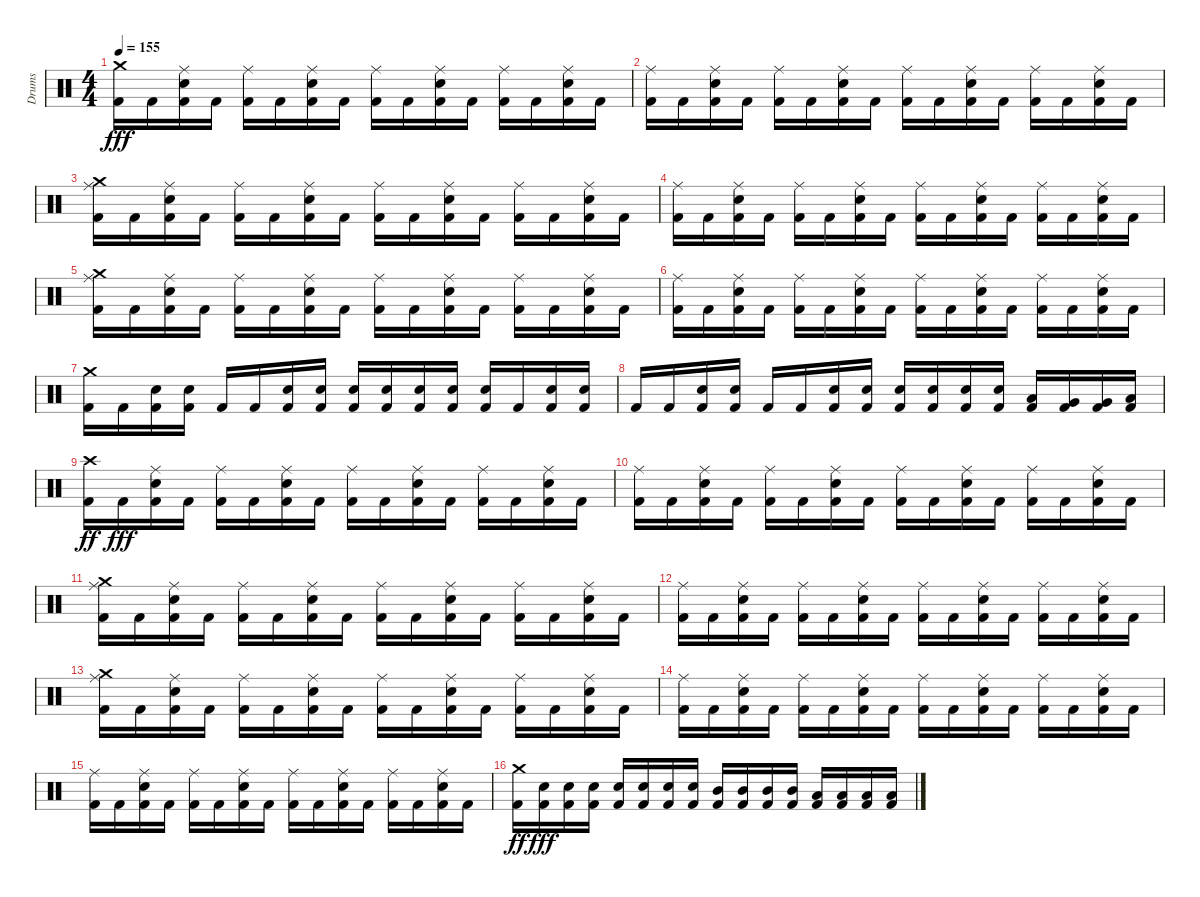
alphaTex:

\track ("Drums" "Drums") {instrument percussion}
\staff {score}
\articulation defaults
\ts (4 4)
\tempo 155
\clef neutral
\ks c
("Kick (hit) 2" "Crash medium (hit)").16{dy fff} "Kick (hit) 2".16 ("Kick (hit) 2" "Ride (middle)" "Snare (hit) 2").16 "Kick (hit) 2".16 ("Kick (hit) 2" "Ride (middle)").16 "Kick (hit) 2".16 ("Kick (hit) 2" "Ride (middle)" "Snare (hit) 2").16 "Kick (hit) 2".16 ("Kick (hit) 2" "Ride (middle)").16 "Kick (hit) 2".16 ("Kick (hit) 2" "Ride (middle)" "Snare (hit) 2").16 "Kick (hit) 2".16 ("Kick (hit) 2" "Ride (middle)").16 "Kick (hit) 2".16 ("Kick (hit) 2" "Ride (middle)" "Snare (hit) 2").16 "Kick (hit) 2".16 |
("Kick (hit) 2" "Ride (middle)").16 "Kick (hit) 2".16 ("Kick (hit) 2" "Ride (middle)" "Snare (hit) 2").16 "Kick (hit) 2".16 ("Kick (hit) 2" "Ride (middle)").16 "Kick (hit) 2".16 ("Kick (hit) 2" "Ride (middle)" "Snare (hit) 2").16 "Kick (hit) 2".16 ("Kick (hit) 2" "Ride (middle)").16 "Kick (hit) 2".16 ("Kick (hit) 2" "Ride (middle)" "Snare (hit) 2").16 "Kick (hit) 2".16 ("Kick (hit) 2" "Ride (middle)").16 "Kick (hit) 2".16 ("Kick (hit) 2" "Ride (middle)" "Snare (hit) 2").16 "Kick (hit) 2".16 |
("Kick (hit) 2" "Ride (middle)" "Crash medium (hit)").16 "Kick (hit) 2".16 ("Kick (hit) 2" "Ride (middle)" "Snare (hit) 2").16 "Kick (hit) 2".16 ("Kick (hit) 2" "Ride (middle)").16 "Kick (hit) 2".16 ("Kick (hit) 2" "Ride (middle)" "Snare (hit) 2").16 "Kick (hit) 2".16 ("Kick (hit) 2" "Ride (middle)").16 "Kick (hit) 2".16 ("Kick (hit) 2" "Ride (middle)" "Snare (hit) 2").16 "Kick (hit) 2".16 ("Kick (hit) 2" "Ride (middle)").16 "Kick (hit) 2".16 ("Kick (hit) 2" "Ride (middle)" "Snare (hit) 2").16 "Kick (hit) 2".16 |
("Kick (hit) 2" "Ride (middle)").16 "Kick (hit) 2".16 ("Kick (hit) 2" "Ride (middle)" "Snare (hit) 2").16 "Kick (hit) 2".16 ("Kick (hit) 2" "Ride (middle)").16 "Kick (hit) 2".16 ("Kick (hit) 2" "Ride (middle)" "Snare (hit) 2").16 "Kick (hit) 2".16 ("Kick (hit) 2" "Ride (middle)").16 "Kick (hit) 2".16 ("Kick (hit) 2" "Ride (middle)" "Snare (hit) 2").16 "Kick (hit) 2".16 ("Kick (hit) 2" "Ride (middle)").16 "Kick (hit) 2".16 ("Kick (hit) 2" "Ride (middle)" "Snare (hit) 2").16 "Kick (hit) 2".16 |
("Kick (hit) 2" "Ride (middle)" "Crash medium (hit)").16 "Kick (hit) 2".16 ("Kick (hit) 2" "Ride (middle)" "Snare (hit) 2").16 "Kick (hit) 2".16 ("Kick (hit) 2" "Ride (middle)").16 "Kick (hit) 2".16 ("Kick (hit) 2" "Ride (middle)" "Snare (hit) 2").16 "Kick (hit) 2".16 ("Kick (hit) 2" "Ride (middle)").16 "Kick (hit) 2".16 ("Kick (hit) 2" "Ride (middle)" "Snare (hit) 2").16 "Kick (hit) 2".16 ("Kick (hit) 2" "Ride (middle)").16 "Kick (hit) 2".16 ("Kick (hit) 2" "Ride (middle)" "Snare (hit) 2").16 "Kick (hit) 2".16 |
("Kick (hit) 2" "Ride (middle)").16 "Kick (hit) 2".16 ("Kick (hit) 2" "Ride (middle)" "Snare (hit) 2").16 "Kick (hit) 2".16 ("Kick (hit) 2" "Ride (middle)").16 "Kick (hit) 2".16 ("Kick (hit) 2" "Ride (middle)" "Snare (hit) 2").16 "Kick (hit) 2".16 ("Kick (hit) 2" "Ride (middle)").16 "Kick (hit) 2".16 ("Kick (hit) 2" "Ride (middle)" "Snare (hit) 2").16 "Kick (hit) 2".16 ("Kick (hit) 2" "Ride (middle)").16 "Kick (hit) 2".16 ("Kick (hit) 2" "Ride (middle)" "Snare (hit) 2").16 "Kick (hit) 2".16 |
("Kick (hit) 2" "Crash medium (hit)").16 "Kick (hit) 2".16 ("Kick (hit) 2" "Snare (hit) 2").16 ("Kick (hit) 2" "Snare (hit) 2").16 "Kick (hit) 2".16 "Kick (hit) 2".16 ("Kick (hit) 2" "Snare (hit) 2").16 ("Kick (hit) 2" "Snare (hit) 2").16 ("Kick (hit) 2" "Snare (hit) 2").16 ("Kick (hit) 2" "Snare (hit) 2").16 ("Kick (hit) 2" "Snare (hit) 2").16 ("Kick (hit) 2" "Snare (hit) 2").16 ("Kick (hit) 2" "Snare (hit) 2").16 "Kick (hit) 2".16 ("Kick (hit) 2" "Snare (hit) 2").16 ("Kick (hit) 2" "Snare (hit) 2").16 |
"Kick (hit) 2".16 "Kick (hit) 2".16 ("Kick (hit) 2" "Snare (hit) 2").16 ("Kick (hit) 2" "Snare (hit) 2").16 "Kick (hit) 2".16 "Kick (hit) 2".16 ("Kick (hit) 2" "Snare (hit) 2").16 ("Kick (hit) 2" "Snare (hit) 2").16 ("Kick (hit) 2" "Snare (hit) 2").16 ("Kick (hit) 2" "Snare (hit) 2").16 ("Kick (hit) 2" "Snare (hit) 2").16 ("Kick (hit) 2" "Snare (hit) 2").16 ("Kick (hit) 2" "Low Tom (hit)").16 ("Kick (hit) 2" "Very Low Tom (hit)").16 ("Kick (hit) 2" "Very Low Tom (hit)").16 ("Kick (hit) 2" "Low Floor Tom (hit)").16 |
("Kick (hit) 2" "Crash high (hit)").16{dy ff} "Kick (hit) 2".16{dy fff} ("Kick (hit) 2" "Ride (middle)" "Snare (hit) 2").16 "Kick (hit) 2".16 ("Kick (hit) 2" "Ride (middle)").16 "Kick (hit) 2".16 ("Kick (hit) 2" "Ride (middle)" "Snare (hit) 2").16 "Kick (hit) 2".16 ("Kick (hit) 2" "Ride (middle)").16 "Kick (hit) 2".16 ("Kick (hit) 2" "Ride (middle)" "Snare (hit) 2").16 "Kick (hit) 2".16 ("Kick (hit) 2" "Ride (middle)").16 "Kick (hit) 2".16 ("Kick (hit) 2" "Ride (middle)" "Snare (hit) 2").16 "Kick (hit) 2".16 |
("Kick (hit) 2" "Ride (middle)").16 "Kick (hit) 2".16 ("Kick (hit) 2" "Ride (middle)" "Snare (hit) 2").16 "Kick (hit) 2".16 ("Kick (hit) 2" "Ride (middle)").16 "Kick (hit) 2".16 ("Kick (hit) 2" "Ride (middle)" "Snare (hit) 2").16 "Kick (hit) 2".16 ("Kick (hit) 2" "Ride (middle)").16 "Kick (hit) 2".16 ("Kick (hit) 2" "Ride (middle)" "Snare (hit) 2").16 "Kick (hit) 2".16 ("Kick (hit) 2" "Ride (middle)").16 "Kick (hit) 2".16 ("Kick (hit) 2" "Ride (middle)" "Snare (hit) 2").16 "Kick (hit) 2".16 |
("Kick (hit) 2" "Ride (middle)" "Crash medium (hit)").16 "Kick (hit) 2".16 ("Kick (hit) 2" "Ride (middle)" "Snare (hit) 2").16 "Kick (hit) 2".16 ("Kick (hit) 2" "Ride (middle)").16 "Kick (hit) 2".16 ("Kick (hit) 2" "Ride (middle)" "Snare (hit) 2").16 "Kick (hit) 2".16 ("Kick (hit) 2" "Ride (middle)").16 "Kick (hit) 2".16 ("Kick (hit) 2" "Ride (middle)" "Snare (hit) 2").16 "Kick (hit) 2".16 ("Kick (hit) 2" "Ride (middle)").16 "Kick (hit) 2".16 ("Kick (hit) 2" "Ride (middle)" "Snare (hit) 2").16 "Kick (hit) 2".16 |
("Kick (hit) 2" "Ride (middle)").16 "Kick (hit) 2".16 ("Kick (hit) 2" "Ride (middle)" "Snare (hit) 2").16 "Kick (hit) 2".16 ("Kick (hit) 2" "Ride (middle)").16 "Kick (hit) 2".16 ("Kick (hit) 2" "Ride (middle)" "Snare (hit) 2").16 "Kick (hit) 2".16 ("Kick (hit) 2" "Ride (middle)").16 "Kick (hit) 2".16 ("Kick (hit) 2" "Ride (middle)" "Snare (hit) 2").16 "Kick (hit) 2".16 ("Kick (hit) 2" "Ride (middle)").16 "Kick (hit) 2".16 ("Kick (hit) 2" "Ride (middle)" "Snare (hit) 2").16 "Kick (hit) 2".16 |
("Kick (hit) 2" "Ride (middle)" "Crash medium (hit)").16 "Kick (hit) 2".16 ("Kick (hit) 2" "Ride (middle)" "Snare (hit) 2").16 "Kick (hit) 2".16 ("Kick (hit) 2" "Ride (middle)").16 "Kick (hit) 2".16 ("Kick (hit) 2" "Ride (middle)" "Snare (hit) 2").16 "Kick (hit) 2".16 ("Kick (hit) 2" "Ride (middle)").16 "Kick (hit) 2".16 ("Kick (hit) 2" "Ride (middle)" "Snare (hit) 2").16 "Kick (hit) 2".16 ("Kick (hit) 2" "Ride (middle)").16 "Kick (hit) 2".16 ("Kick (hit) 2" "Ride (middle)" "Snare (hit) 2").16 "Kick (hit) 2".16 |
("Kick (hit) 2" "Ride (middle)").16 "Kick (hit) 2".16 ("Kick (hit) 2" "Ride (middle)" "Snare (hit) 2").16 "Kick (hit) 2".16 ("Kick (hit) 2" "Ride (middle)").16 "Kick (hit) 2".16 ("Kick (hit) 2" "Ride (middle)" "Snare (hit) 2").16 "Kick (hit) 2".16 ("Kick (hit) 2" "Ride (middle)").16 "Kick (hit) 2".16 ("Kick (hit) 2" "Ride (middle)" "Snare (hit) 2").16 "Kick (hit) 2".16 ("Kick (hit) 2" "Ride (middle)").16 "Kick (hit) 2".16 ("Kick (hit) 2" "Ride (middle)" "Snare (hit) 2").16 "Kick (hit) 2".16 |
("Kick (hit) 2" "Ride (middle)").16 "Kick (hit) 2".16 ("Kick (hit) 2" "Ride (middle)" "Snare (hit) 2").16 "Kick (hit) 2".16 ("Kick (hit) 2" "Ride (middle)").16 "Kick (hit) 2".16 ("Kick (hit) 2" "Ride (middle)" "Snare (hit) 2").16 "Kick (hit) 2".16 ("Kick (hit) 2" "Ride (middle)").16 "Kick (hit) 2".16 ("Kick (hit) 2" "Ride (middle)" "Snare (hit) 2").16 "Kick (hit) 2".16 ("Kick (hit) 2" "Ride (middle)").16 "Kick (hit) 2".16 ("Kick (hit) 2" "Ride (middle)" "Snare (hit) 2").16 "Kick (hit) 2".16 |
("Kick (hit) 2" "Crash medium (hit)").16{dy ff} ("Kick (hit) 2" "Snare (hit) 2").16{dy fff} ("Kick (hit) 2" "Snare (hit) 2").16 ("Kick (hit) 2" "Snare (hit) 2").16 ("Kick (hit) 2" "Snare (hit) 2").16 ("Kick (hit) 2" "Snare (hit) 2").16 ("Kick (hit) 2" "Snare (hit) 2").16 ("Kick (hit) 2" "Snare (hit) 2").16 ("Kick (hit) 2" "Mid Tom (hit)").16 ("Kick (hit) 2" "Mid Tom (hit)").16 ("Kick (hit) 2" "Mid Tom (hit)").16 ("Kick (hit) 2" "Mid Tom (hit)").16 ("Kick (hit) 2" "Low Tom (hit)").16 ("Kick (hit) 2" "Low Tom (hit)").16 ("Kick (hit) 2" "Low Tom (hit)").16 ("Kick (hit) 2" "Low Tom (hit)").16
